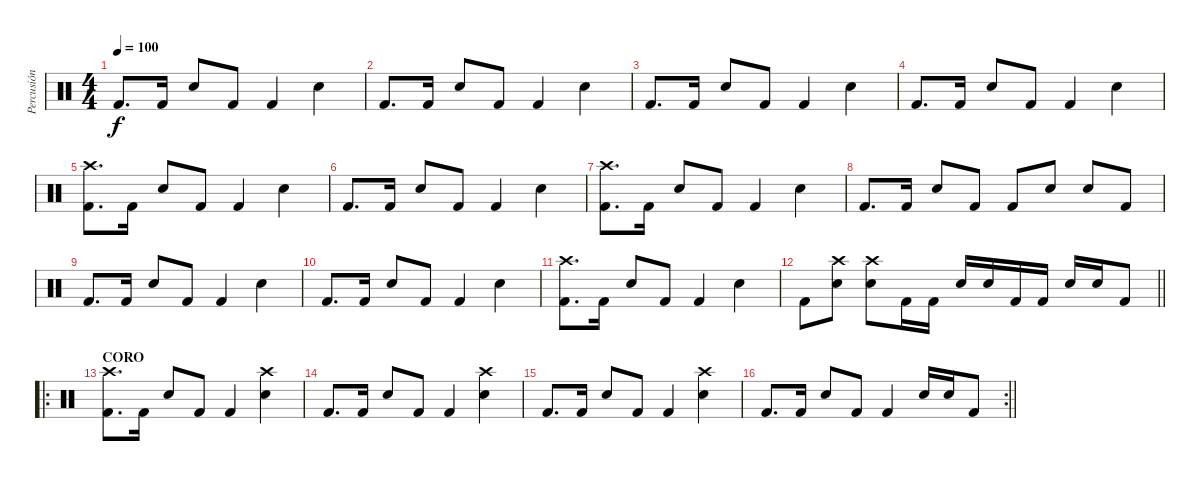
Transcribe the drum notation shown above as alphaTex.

\track ("Percusión" "Percusión") {instrument percussion}
\staff {score}
\articulation defaults
\ts (4 4)
\tempo 100
\clef neutral
\ks c "Kick (hit) 2".8{d dy f} "Kick (hit) 2".16 "Electric Snare (hit)".8 "Kick (hit) 2".8 "Kick (hit) 2".4 "Electric Snare (hit)".4
|
"Kick (hit) 2".8{d} "Kick (hit) 2".16 "Electric Snare (hit)".8 "Kick (hit) 2".8 "Kick (hit) 2".4 "Electric Snare (hit)".4 |
"Kick (hit) 2".8{d} "Kick (hit) 2".16 "Electric Snare (hit)".8 "Kick (hit) 2".8 "Kick (hit) 2".4 "Electric Snare (hit)".4 |
"Kick (hit) 2".8{d} "Kick (hit) 2".16 "Electric Snare (hit)".8 "Kick (hit) 2".8 "Kick (hit) 2".4 "Electric Snare (hit)".4 |
("Crash high (hit)" "Kick (hit) 2").8{d} "Kick (hit) 2".16 "Electric Snare (hit)".8 "Kick (hit) 2".8 "Kick (hit) 2".4 "Electric Snare (hit)".4 |
"Kick (hit) 2".8{d} "Kick (hit) 2".16 "Electric Snare (hit)".8 "Kick (hit) 2".8 "Kick (hit) 2".4 "Electric Snare (hit)".4 |
("Crash high (hit)" "Kick (hit) 2").8{d} "Kick (hit) 2".16 "Electric Snare (hit)".8 "Kick (hit) 2".8 "Kick (hit) 2".4 "Electric Snare (hit)".4 |
"Kick (hit) 2".8{d} "Kick (hit) 2".16 "Electric Snare (hit)".8 "Kick (hit) 2".8 "Kick (hit) 2".8 "Electric Snare (hit)".8 "Electric Snare (hit)".8 "Kick (hit) 2".8 |
"Kick (hit) 2".8{d} "Kick (hit) 2".16 "Electric Snare (hit)".8 "Kick (hit) 2".8 "Kick (hit) 2".4 "Electric Snare (hit)".4 |
"Kick (hit) 2".8{d} "Kick (hit) 2".16 "Electric Snare (hit)".8 "Kick (hit) 2".8 "Kick (hit) 2".4 "Electric Snare (hit)".4 |
("Crash high (hit)" "Kick (hit) 2").8{d} "Kick (hit) 2".16 "Electric Snare (hit)".8 "Kick (hit) 2".8 "Kick (hit) 2".4 "Electric Snare (hit)".4 |
\barLineRight lightlight "Kick (hit) 2".8
("Crash high (hit)" "Electric Snare (hit)").8 ("Crash high (hit)" "Electric Snare (hit)").8 "Kick (hit) 2".16 "Kick (hit) 2".16 "Electric Snare (hit)".16 "Electric Snare (hit)".16 "Kick (hit) 2".16 "Kick (hit) 2".16 "Electric Snare (hit)".16 "Electric Snare (hit)".16 "Kick (hit) 2".8 |
\ro
\section ("" "CORO")
("Crash high (hit)" "Kick (hit) 2").8{d} "Kick (hit) 2".16 "Electric Snare (hit)".8 "Kick (hit) 2".8 "Kick (hit) 2".4 ("Crash high (hit)" "Electric Snare (hit)").4 |
"Kick (hit) 2".8{d} "Kick (hit) 2".16 "Electric Snare (hit)".8 "Kick (hit) 2".8 "Kick (hit) 2".4 ("Crash high (hit)" "Electric Snare (hit)").4 |
"Kick (hit) 2".8{d} "Kick (hit) 2".16 "Electric Snare (hit)".8 "Kick (hit) 2".8 "Kick (hit) 2".4 ("Crash high (hit)" "Electric Snare (hit)").4 |
\rc 2
\barLineRight lightlight "Kick (hit) 2".8{d} "Kick (hit) 2".16 "Electric Snare (hit)".8 "Kick (hit) 2".8 "Kick (hit) 2".4 "Electric Snare (hit)".16 "Electric Snare (hit)".16 "Kick (hit) 2".8
